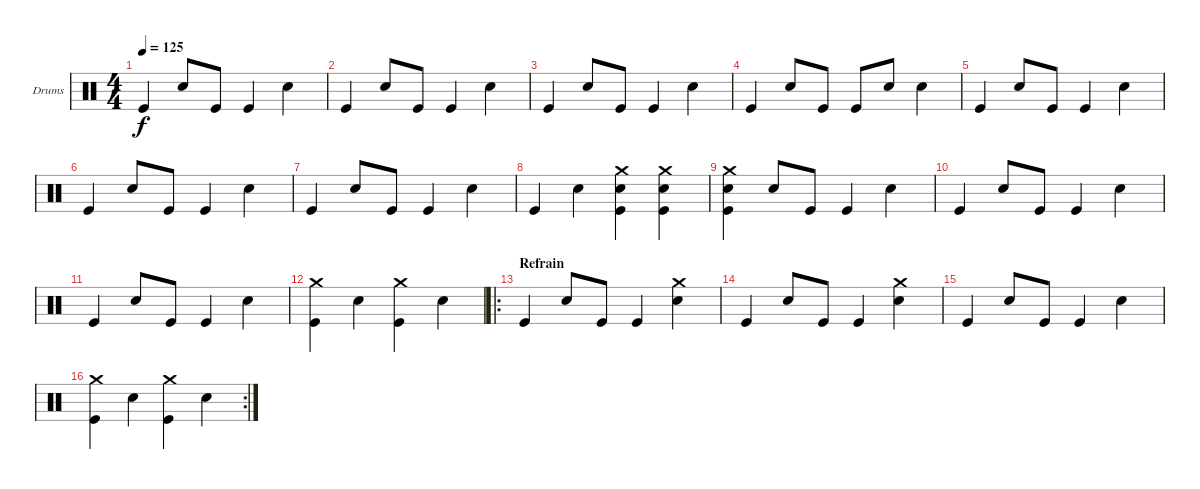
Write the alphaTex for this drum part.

\bracketExtendMode groupsimilarinstruments
\firstSystemTrackNameOrientation horizontal
\otherSystemsTrackNameOrientation horizontal
\track ("batterie" "Drums") {instrument percussion}
\staff {score}
\articulation defaults
\ts (4 4)
\tempo 125
\clef neutral
\ks c "Kick (hit)".4{dy f} "Snare (hit) 2".8 "Kick (hit)".8 "Kick (hit)".4 "Snare (hit) 2".4
|
"Kick (hit)".4 "Snare (hit) 2".8 "Kick (hit)".8 "Kick (hit)".4 "Snare (hit) 2".4 |
"Kick (hit)".4 "Snare (hit) 2".8 "Kick (hit)".8 "Kick (hit)".4 "Snare (hit) 2".4 |
"Kick (hit)".4 "Snare (hit) 2".8 "Kick (hit)".8 "Kick (hit)".8 "Snare (hit) 2".8 "Snare (hit) 2".4 |
"Kick (hit)".4 "Snare (hit) 2".8 "Kick (hit)".8 "Kick (hit)".4 "Snare (hit) 2".4 |
"Kick (hit)".4 "Snare (hit) 2".8 "Kick (hit)".8 "Kick (hit)".4 "Snare (hit) 2".4 |
"Kick (hit)".4 "Snare (hit) 2".8 "Kick (hit)".8 "Kick (hit)".4 "Snare (hit) 2".4 |
"Kick (hit)".4 "Snare (hit) 2".4 ("Crash medium (hit)" "Snare (hit) 2" "Kick (hit)").4 ("Crash medium (hit)" "Snare (hit) 2" "Kick (hit)").4 |
("Crash medium (hit)" "Snare (hit) 2" "Kick (hit)").4 "Snare (hit) 2".8 "Kick (hit)".8 "Kick (hit)".4 "Snare (hit) 2".4 |
"Kick (hit)".4 "Snare (hit) 2".8 "Kick (hit)".8 "Kick (hit)".4 "Snare (hit) 2".4 |
"Kick (hit)".4 "Snare (hit) 2".8 "Kick (hit)".8 "Kick (hit)".4 "Snare (hit) 2".4 |
("Crash medium (hit)" "Kick (hit)").4 "Snare (hit) 2".4 ("Crash medium (hit)" "Kick (hit)").4 "Snare (hit) 2".4 |
\ro
\section ("" "Refrain")
"Kick (hit)".4 "Snare (hit) 2".8 "Kick (hit)".8 "Kick (hit)".4 ("Crash medium (hit)" "Snare (hit) 2").4 |
"Kick (hit)".4 "Snare (hit) 2".8 "Kick (hit)".8 "Kick (hit)".4 ("Crash medium (hit)" "Snare (hit) 2").4 |
"Kick (hit)".4 "Snare (hit) 2".8 "Kick (hit)".8 "Kick (hit)".4 "Snare (hit) 2".4 |
\rc 2
("Crash medium (hit)" "Kick (hit)").4 "Snare (hit) 2".4 ("Crash medium (hit)" "Kick (hit)").4 "Snare (hit) 2".4
